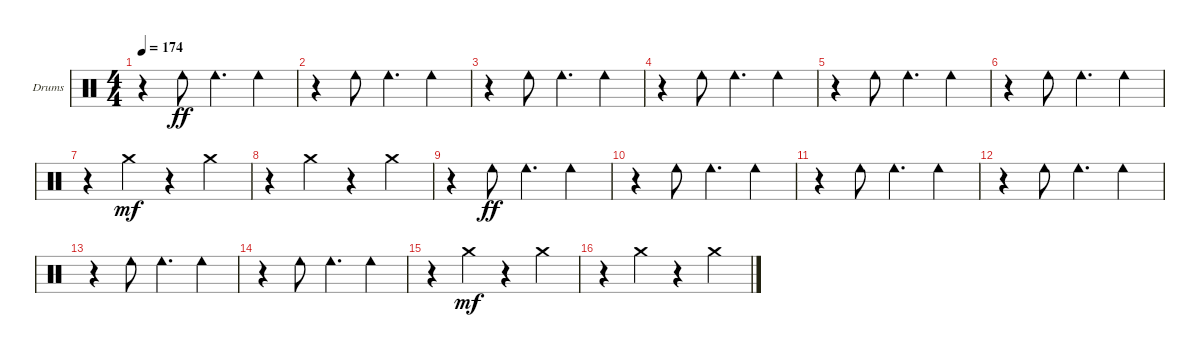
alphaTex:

\defaultSystemsLayout 4
\bracketExtendMode groupsimilarinstruments
\firstSystemTrackNameOrientation horizontal
\otherSystemsTrackNameOrientation horizontal
\track ("Drumkit (EJ Barnes)" "Drums") {instrument percussion}
\staff {score}
\articulation defaults
\ts (4 4)
\tempo 174
\clef neutral
\scale
0.333333
\ks c
r.4{dy ff} "Cowbell low (hit)".8 "Cowbell low (hit)".4{d} "Cowbell low (hit)".4 |
\scale
0.333333 r.4 "Cowbell low (hit)".8 "Cowbell low (hit)".4{d} "Cowbell low (hit)".4 |
\scale
0.333333 r.4 "Cowbell low (hit)".8 "Cowbell low (hit)".4{d} "Cowbell low (hit)".4 |
\scale
0.333333 r.4 "Cowbell low (hit)".8 "Cowbell low (hit)".4{d} "Cowbell low (hit)".4 |
\scale
0.333333 r.4 "Cowbell low (hit)".8 "Cowbell low (hit)".4{d} "Cowbell low (hit)".4 |
\scale
0.333333 r.4 "Cowbell low (hit)".8 "Cowbell low (hit)".4{d} "Cowbell low (hit)".4 |
\scale
0.333333 r.4 "Crash medium (hit)".4{dy mf} r.4 "Crash medium (hit)".4 |
\scale
0.333333 r.4 "Crash medium (hit)".4 r.4 "Crash medium (hit)".4 |
\scale
0.333333 r.4 "Cowbell low (hit)".8{dy ff} "Cowbell low (hit)".4{d} "Cowbell low (hit)".4 |
\scale
0.333333 r.4 "Cowbell low (hit)".8 "Cowbell low (hit)".4{d} "Cowbell low (hit)".4 |
\scale
0.333333 r.4 "Cowbell low (hit)".8 "Cowbell low (hit)".4{d} "Cowbell low (hit)".4 |
\scale
0.333333 r.4 "Cowbell low (hit)".8 "Cowbell low (hit)".4{d} "Cowbell low (hit)".4 |
\scale
0.333333 r.4 "Cowbell low (hit)".8 "Cowbell low (hit)".4{d} "Cowbell low (hit)".4 |
\scale
0.333333 r.4 "Cowbell low (hit)".8 "Cowbell low (hit)".4{d} "Cowbell low (hit)".4 |
\scale
0.333333 r.4 "Crash medium (hit)".4{dy mf} r.4 "Crash medium (hit)".4 |
\scale
0.333333 r.4 "Crash medium (hit)".4 r.4 "Crash medium (hit)".4
